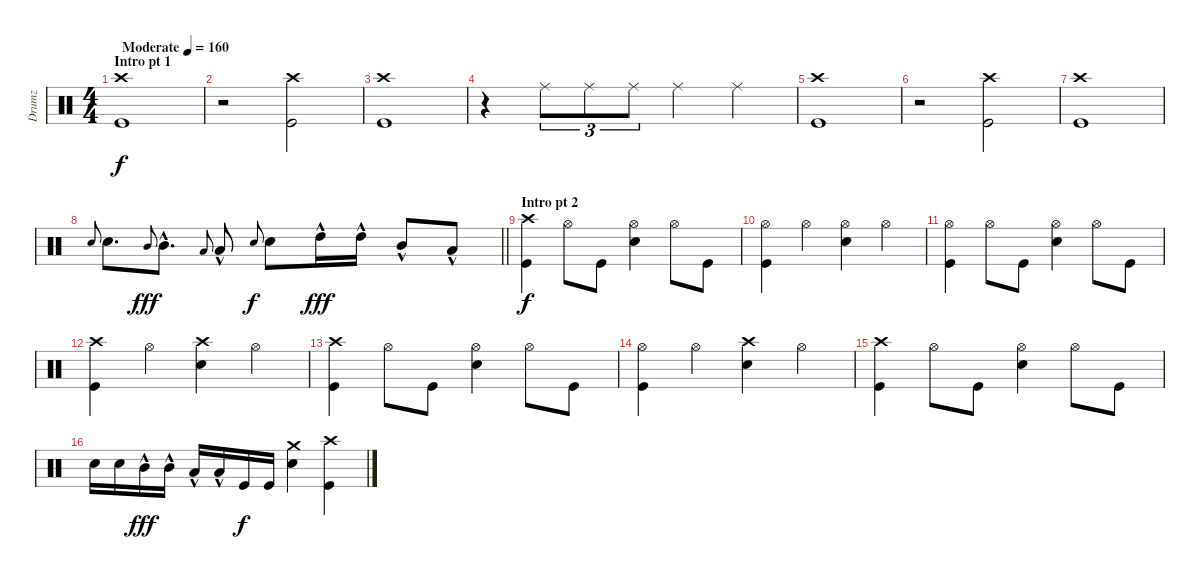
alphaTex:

\track ("Drumz" "Drumz") {instrument percussion}
\staff {score}
\articulation defaults
\ts (4 4)
\section ("" "Intro pt 1")
\tempo (160 "Moderate")
\clef neutral
\ks c
("Crash high (hit)" "Kick (hit)").1{dy f} |
r.2 ("Crash high (hit)" "Kick (hit)").2 |
("Crash high (hit)" "Kick (hit)").1 |
r.4 "Ride (middle)".8{tu (3 2)} "Ride (middle)".8{tu (3 2)} "Ride (middle)".8{tu (3 2)} "Ride (middle)".4 "Ride (middle)".4 |
("Crash high (hit)" "Kick (hit)").1 |
r.2 ("Crash high (hit)" "Kick (hit)").2 |
("Crash high (hit)" "Kick (hit)").1 |
\barLineRight lightlight "Electric Snare (hit)".8{gr onbeat} "Electric Snare (hit)".8{d} "Mid Tom (hit)".8{gr onbeat dy fff} "Mid Tom (hit)"{hac}.8{d} "Low Tom (hit)".8{gr onbeat} "Low Tom (hit)"{hac}.8 "Electric Snare (hit)".8{gr onbeat dy f} "Electric Snare (hit)".8 "High Tom (hit)"{hac}.16{dy fff} "High Tom (hit)"{hac}.16 "Mid Tom (hit)"{hac}.8 "Low Tom (hit)"{hac}.8
|
\section ("" "Intro pt 2")
("Crash high (hit)" "Kick (hit)").4{dy f} "Hi-Hat (open)".8 "Kick (hit)".8 ("Hi-Hat (open)" "Electric Snare (hit)").4 "Hi-Hat (open)".8 "Kick (hit)".8 |
("Hi-Hat (open)" "Kick (hit)").4 "Hi-Hat (open)".4 ("Hi-Hat (open)" "Electric Snare (hit)").4 "Hi-Hat (open)".4 |
("Hi-Hat (open)" "Kick (hit)").4 "Hi-Hat (open)".8 "Kick (hit)".8 ("Hi-Hat (open)" "Electric Snare (hit)").4 "Hi-Hat (open)".8 "Kick (hit)".8 |
("Crash high (hit)" "Kick (hit)").4 "Hi-Hat (open)".4 ("Crash high (hit)" "Electric Snare (hit)").4 "Hi-Hat (open)".4 |
("Crash high (hit)" "Kick (hit)").4 "Hi-Hat (open)".8 "Kick (hit)".8 ("Hi-Hat (open)" "Electric Snare (hit)").4 "Hi-Hat (open)".8 "Kick (hit)".8 |
("Hi-Hat (open)" "Kick (hit)").4 "Hi-Hat (open)".4 ("Crash high (hit)" "Electric Snare (hit)").4 "Hi-Hat (open)".4 |
("Crash high (hit)" "Kick (hit)").4 "Hi-Hat (open)".8 "Kick (hit)".8 ("Hi-Hat (open)" "Electric Snare (hit)").4 "Hi-Hat (open)".8 "Kick (hit)".8 |
"Electric Snare (hit)".16 "Electric Snare (hit)".16 "Mid Tom (hit)"{hac}.16{dy fff} "Mid Tom (hit)"{hac}.16 "Low Tom (hit)"{hac}.16 "Low Tom (hit)"{hac}.16 "Kick (hit)".16{dy f} "Kick (hit)".16 ("Crash medium (hit)" "Electric Snare (hit)").4 ("Crash high (hit)" "Kick (hit)").4
